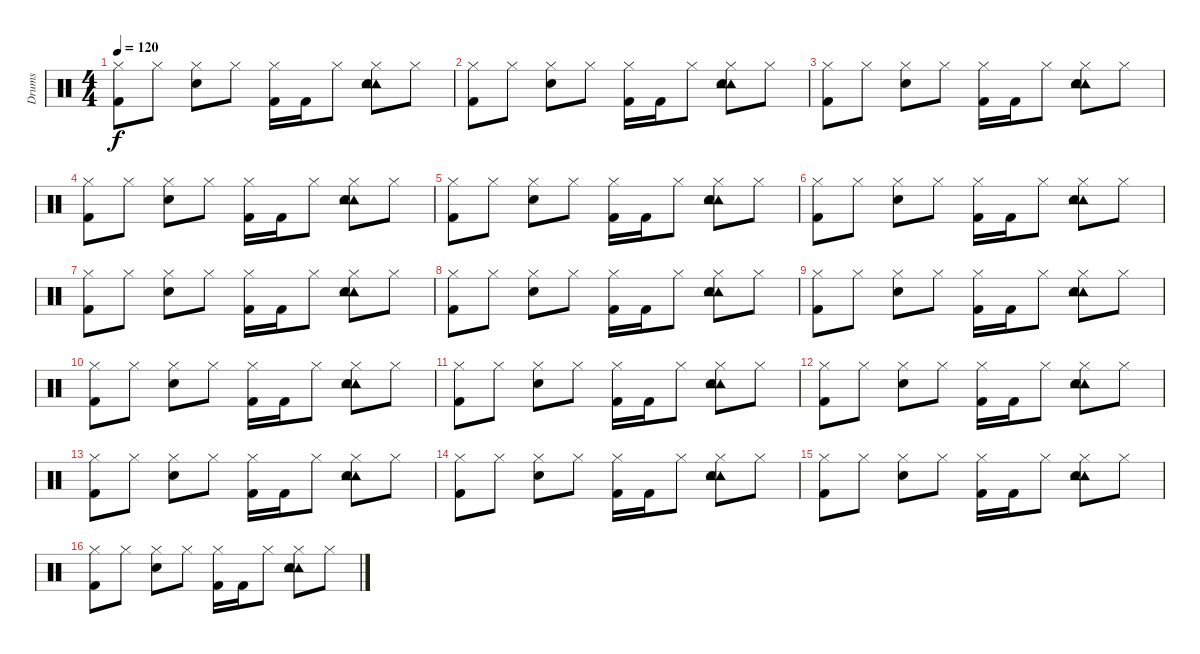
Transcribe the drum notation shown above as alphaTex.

\track ("Drums" "Drums") {instrument percussion}
\staff {score}
\articulation defaults
\ts (4 4)
\tempo 120
\clef neutral
\ks c
("Hi-Hat (closed)" "Kick (hit) 2").8{dy f} "Hi-Hat (closed)".8 ("Hi-Hat (closed)" "Snare (hit) 2").8 "Hi-Hat (closed)".8 ("Hi-Hat (closed)" "Kick (hit) 2").16 "Kick (hit) 2".16 "Hi-Hat (closed)".8 ("Tambourine (hit)" "Tambourine (hit)" "Hi-Hat (closed)" "Snare (hit) 2").8 "Hi-Hat (closed)".8 |
("Hi-Hat (closed)" "Kick (hit) 2").8 "Hi-Hat (closed)".8 ("Hi-Hat (closed)" "Snare (hit) 2").8 "Hi-Hat (closed)".8 ("Hi-Hat (closed)" "Kick (hit) 2").16 "Kick (hit) 2".16 "Hi-Hat (closed)".8 ("Tambourine (hit)" "Tambourine (hit)" "Hi-Hat (closed)" "Snare (hit) 2").8 "Hi-Hat (closed)".8 |
("Hi-Hat (closed)" "Kick (hit) 2").8 "Hi-Hat (closed)".8 ("Hi-Hat (closed)" "Snare (hit) 2").8 "Hi-Hat (closed)".8 ("Hi-Hat (closed)" "Kick (hit) 2").16 "Kick (hit) 2".16 "Hi-Hat (closed)".8 ("Tambourine (hit)" "Tambourine (hit)" "Hi-Hat (closed)" "Snare (hit) 2").8 "Hi-Hat (closed)".8 |
("Hi-Hat (closed)" "Kick (hit) 2").8 "Hi-Hat (closed)".8 ("Hi-Hat (closed)" "Snare (hit) 2").8 "Hi-Hat (closed)".8 ("Hi-Hat (closed)" "Kick (hit) 2").16 "Kick (hit) 2".16 "Hi-Hat (closed)".8 ("Tambourine (hit)" "Tambourine (hit)" "Hi-Hat (closed)" "Snare (hit) 2").8 "Hi-Hat (closed)".8 |
("Hi-Hat (closed)" "Kick (hit) 2").8 "Hi-Hat (closed)".8 ("Hi-Hat (closed)" "Snare (hit) 2").8 "Hi-Hat (closed)".8 ("Hi-Hat (closed)" "Kick (hit) 2").16 "Kick (hit) 2".16 "Hi-Hat (closed)".8 ("Tambourine (hit)" "Tambourine (hit)" "Hi-Hat (closed)" "Snare (hit) 2").8 "Hi-Hat (closed)".8 |
("Hi-Hat (closed)" "Kick (hit) 2").8 "Hi-Hat (closed)".8 ("Hi-Hat (closed)" "Snare (hit) 2").8 "Hi-Hat (closed)".8 ("Hi-Hat (closed)" "Kick (hit) 2").16 "Kick (hit) 2".16 "Hi-Hat (closed)".8 ("Tambourine (hit)" "Tambourine (hit)" "Hi-Hat (closed)" "Snare (hit) 2").8 "Hi-Hat (closed)".8 |
("Hi-Hat (closed)" "Kick (hit) 2").8 "Hi-Hat (closed)".8 ("Hi-Hat (closed)" "Snare (hit) 2").8 "Hi-Hat (closed)".8 ("Hi-Hat (closed)" "Kick (hit) 2").16 "Kick (hit) 2".16 "Hi-Hat (closed)".8 ("Tambourine (hit)" "Tambourine (hit)" "Hi-Hat (closed)" "Snare (hit) 2").8 "Hi-Hat (closed)".8 |
("Hi-Hat (closed)" "Kick (hit) 2").8 "Hi-Hat (closed)".8 ("Hi-Hat (closed)" "Snare (hit) 2").8 "Hi-Hat (closed)".8 ("Hi-Hat (closed)" "Kick (hit) 2").16 "Kick (hit) 2".16 "Hi-Hat (closed)".8 ("Tambourine (hit)" "Tambourine (hit)" "Hi-Hat (closed)" "Snare (hit) 2").8 "Hi-Hat (closed)".8 |
("Hi-Hat (closed)" "Kick (hit) 2").8 "Hi-Hat (closed)".8 ("Hi-Hat (closed)" "Snare (hit) 2").8 "Hi-Hat (closed)".8 ("Hi-Hat (closed)" "Kick (hit) 2").16 "Kick (hit) 2".16 "Hi-Hat (closed)".8 ("Tambourine (hit)" "Tambourine (hit)" "Hi-Hat (closed)" "Snare (hit) 2").8 "Hi-Hat (closed)".8 |
("Hi-Hat (closed)" "Kick (hit) 2").8 "Hi-Hat (closed)".8 ("Hi-Hat (closed)" "Snare (hit) 2").8 "Hi-Hat (closed)".8 ("Hi-Hat (closed)" "Kick (hit) 2").16 "Kick (hit) 2".16 "Hi-Hat (closed)".8 ("Tambourine (hit)" "Tambourine (hit)" "Hi-Hat (closed)" "Snare (hit) 2").8 "Hi-Hat (closed)".8 |
("Hi-Hat (closed)" "Kick (hit) 2").8 "Hi-Hat (closed)".8 ("Hi-Hat (closed)" "Snare (hit) 2").8 "Hi-Hat (closed)".8 ("Hi-Hat (closed)" "Kick (hit) 2").16 "Kick (hit) 2".16 "Hi-Hat (closed)".8 ("Tambourine (hit)" "Tambourine (hit)" "Hi-Hat (closed)" "Snare (hit) 2").8 "Hi-Hat (closed)".8 |
("Hi-Hat (closed)" "Kick (hit) 2").8 "Hi-Hat (closed)".8 ("Hi-Hat (closed)" "Snare (hit) 2").8 "Hi-Hat (closed)".8 ("Hi-Hat (closed)" "Kick (hit) 2").16 "Kick (hit) 2".16 "Hi-Hat (closed)".8 ("Tambourine (hit)" "Tambourine (hit)" "Hi-Hat (closed)" "Snare (hit) 2").8 "Hi-Hat (closed)".8 |
("Hi-Hat (closed)" "Kick (hit) 2").8 "Hi-Hat (closed)".8 ("Hi-Hat (closed)" "Snare (hit) 2").8 "Hi-Hat (closed)".8 ("Hi-Hat (closed)" "Kick (hit) 2").16 "Kick (hit) 2".16 "Hi-Hat (closed)".8 ("Tambourine (hit)" "Tambourine (hit)" "Hi-Hat (closed)" "Snare (hit) 2").8 "Hi-Hat (closed)".8 |
("Hi-Hat (closed)" "Kick (hit) 2").8 "Hi-Hat (closed)".8 ("Hi-Hat (closed)" "Snare (hit) 2").8 "Hi-Hat (closed)".8 ("Hi-Hat (closed)" "Kick (hit) 2").16 "Kick (hit) 2".16 "Hi-Hat (closed)".8 ("Tambourine (hit)" "Tambourine (hit)" "Hi-Hat (closed)" "Snare (hit) 2").8 "Hi-Hat (closed)".8 |
("Hi-Hat (closed)" "Kick (hit) 2").8 "Hi-Hat (closed)".8 ("Hi-Hat (closed)" "Snare (hit) 2").8 "Hi-Hat (closed)".8 ("Hi-Hat (closed)" "Kick (hit) 2").16 "Kick (hit) 2".16 "Hi-Hat (closed)".8 ("Tambourine (hit)" "Tambourine (hit)" "Hi-Hat (closed)" "Snare (hit) 2").8 "Hi-Hat (closed)".8 |
("Hi-Hat (closed)" "Kick (hit) 2").8 "Hi-Hat (closed)".8 ("Hi-Hat (closed)" "Snare (hit) 2").8 "Hi-Hat (closed)".8 ("Hi-Hat (closed)" "Kick (hit) 2").16 "Kick (hit) 2".16 "Hi-Hat (closed)".8 ("Tambourine (hit)" "Tambourine (hit)" "Hi-Hat (closed)" "Snare (hit) 2").8 "Hi-Hat (closed)".8
